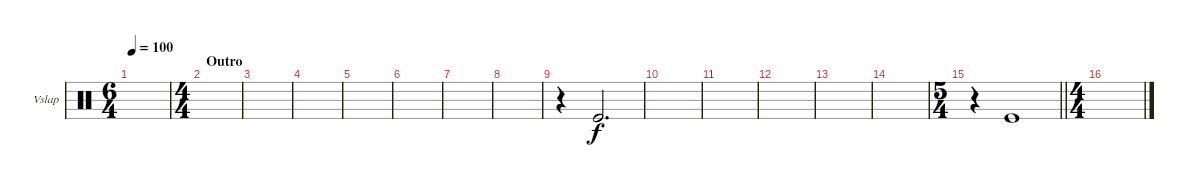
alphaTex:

\defaultSystemsLayout 4
\bracketExtendMode groupsimilarinstruments
\firstSystemTrackNameOrientation horizontal
\otherSystemsTrackNameOrientation horizontal
\track ("Vibraslap" "Vslap") {instrument percussion}
\staff {score}
\articulation defaults
\ts (6 4)
\tempo 100
\clef neutral
\scale
0.390805
\ks c
|
\ts (4 4)
\section ("" "Outro")
\scale
0.390805 |
\scale
0.333333 |
\scale
0.333333 |
\scale
0.333333 |
\scale
0.333333 |
\scale
0.390805 |
\scale
0.390805 |
\scale
0.218391 r.4 "Kick (hit)".2{d} |
\scale
0.333333 |
\scale
0.333333 |
\scale
0.333333 |
\scale
0.263889 |
\scale
0.263889 |
\ts (5 4)
\scale
0.472222
\barLineRight lightlight
r.4 "Kick (hit)".1 |
\ts (4 4)
